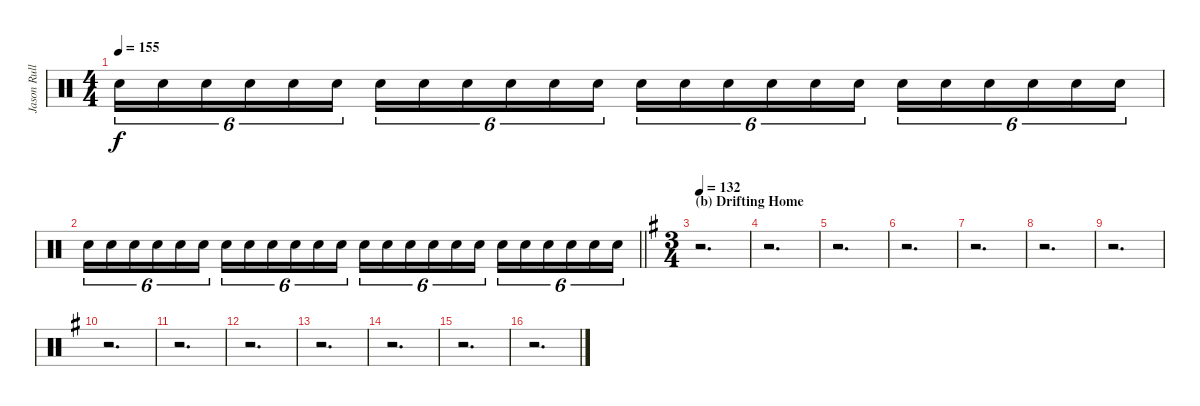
\track ("Jason Rullo (drums)" "Jason Rull") {instrument percussion}
\staff {score}
\articulation defaults
\ts (4 4)
\tempo 155
\clef neutral
\ks aminor "Electric Snare (hit)".16{tu (6 4) dy f volume 5} "Electric Snare (hit)".16{tu (6 4) volume 5} "Electric Snare (hit)".16{tu (6 4) volume 5} "Electric Snare (hit)".16{tu (6 4) volume 6} "Electric Snare (hit)".16{tu (6 4) volume 6} "Electric Snare (hit)".16{tu (6 4) volume 6} "Electric Snare (hit)".16{tu (6 4) volume 6} "Electric Snare (hit)".16{tu (6 4) volume 6} "Electric Snare (hit)".16{tu (6 4) volume 7} "Electric Snare (hit)".16{tu (6 4) volume 7} "Electric Snare (hit)".16{tu (6 4) volume 7} "Electric Snare (hit)".16{tu (6 4) volume 7} "Electric Snare (hit)".16{tu (6 4) volume 7} "Electric Snare (hit)".16{tu (6 4) volume 8} "Electric Snare (hit)".16{tu (6 4) volume 8} "Electric Snare (hit)".16{tu (6 4) volume 8} "Electric Snare (hit)".16{tu (6 4) volume 8} "Electric Snare (hit)".16{tu (6 4) volume 8} "Electric Snare (hit)".16{tu (6 4) volume 9} "Electric Snare (hit)".16{tu (6 4) volume 9} "Electric Snare (hit)".16{tu (6 4) volume 9} "Electric Snare (hit)".16{tu (6 4) volume 9} "Electric Snare (hit)".16{tu (6 4) volume 10} "Electric Snare (hit)".16{tu (6 4) volume 10}
|
\barLineRight lightlight "Electric Snare (hit)".16{tu (6 4) volume 10} "Electric Snare (hit)".16{tu (6 4) volume 10} "Electric Snare (hit)".16{tu (6 4) volume 10} "Electric Snare (hit)".16{tu (6 4) volume 10} "Electric Snare (hit)".16{tu (6 4) volume 11} "Electric Snare (hit)".16{tu (6 4) volume 11} "Electric Snare (hit)".16{tu (6 4) volume 11} "Electric Snare (hit)".16{tu (6 4) volume 11} "Electric Snare (hit)".16{tu (6 4) volume 12} "Electric Snare (hit)".16{tu (6 4) volume 12} "Electric Snare (hit)".16{tu (6 4) volume 12} "Electric Snare (hit)".16{tu (6 4) volume 12} "Electric Snare (hit)".16{tu (6 4) volume 12} "Electric Snare (hit)".16{tu (6 4) volume 12} "Electric Snare (hit)".16{tu (6 4) volume 13} "Electric Snare (hit)".16{tu (6 4) volume 13} "Electric Snare (hit)".16{tu (6 4) volume 13} "Electric Snare (hit)".16{tu (6 4) volume 13} "Electric Snare (hit)".16{tu (6 4) volume 14} "Electric Snare (hit)".16{tu (6 4) volume 14} "Electric Snare (hit)".16{tu (6 4) volume 14} "Electric Snare (hit)".16{tu (6 4) volume 14} "Electric Snare (hit)".16{tu (6 4) volume 14} "Electric Snare (hit)".16{tu (6 4) volume 15}
|
\ts (3 4)
\section ("" "(b) Drifting Home")
\tempo 132
\ks eminor
r.2{d} |
r.2{d} |
r.2{d} |
r.2{d} |
r.2{d} |
r.2{d} |
r.2{d} |
r.2{d} |
r.2{d} |
r.2{d} |
r.2{d} |
r.2{d} |
r.2{d} |
r.2{d}
